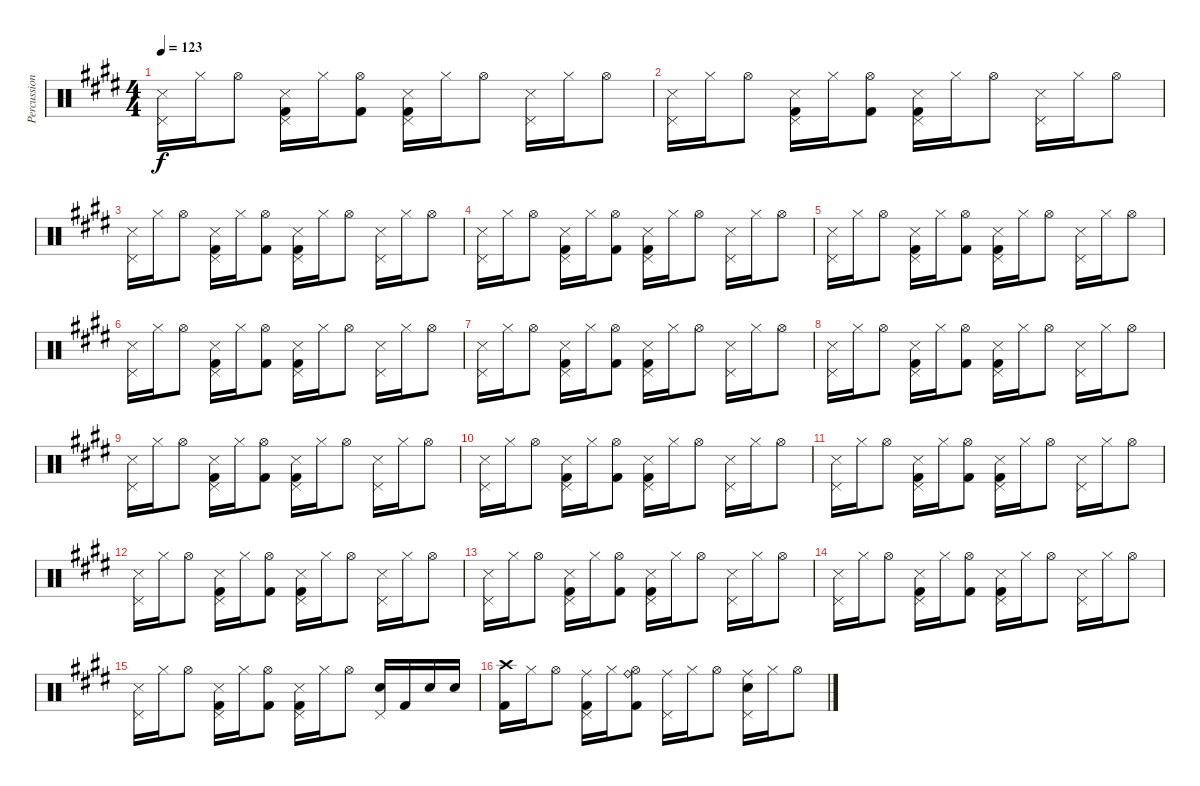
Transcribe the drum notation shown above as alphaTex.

\track ("Percussioni" "Percussion") {instrument percussion}
\staff {score}
\articulation defaults
\ts (4 4)
\tempo 123
\clef neutral
\ks e
("Pedal Hi-Hat (hit)" "Metronome (hit)").16{dy f} "Hi-Hat (closed)".16 "Hi-Hat (open)".8 ("Pedal Hi-Hat (hit)" "Metronome (hit)" "Kick (hit) 2").16 "Hi-Hat (closed)".16 ("Hi-Hat (open)" "Kick (hit) 2").8 ("Pedal Hi-Hat (hit)" "Metronome (hit)" "Kick (hit) 2").16 "Hi-Hat (closed)".16 "Hi-Hat (open)".8 ("Pedal Hi-Hat (hit)" "Metronome (hit)").16 "Hi-Hat (closed)".16 "Hi-Hat (open)".8 |
("Pedal Hi-Hat (hit)" "Metronome (hit)").16 "Hi-Hat (closed)".16 "Hi-Hat (open)".8 ("Pedal Hi-Hat (hit)" "Metronome (hit)" "Kick (hit) 2").16 "Hi-Hat (closed)".16 ("Hi-Hat (open)" "Kick (hit) 2").8 ("Pedal Hi-Hat (hit)" "Metronome (hit)" "Kick (hit) 2").16 "Hi-Hat (closed)".16 "Hi-Hat (open)".8 ("Pedal Hi-Hat (hit)" "Metronome (hit)").16 "Hi-Hat (closed)".16 "Hi-Hat (open)".8 |
("Pedal Hi-Hat (hit)" "Metronome (hit)").16 "Hi-Hat (closed)".16 "Hi-Hat (open)".8 ("Pedal Hi-Hat (hit)" "Metronome (hit)" "Kick (hit) 2").16 "Hi-Hat (closed)".16 ("Hi-Hat (open)" "Kick (hit) 2").8 ("Pedal Hi-Hat (hit)" "Metronome (hit)" "Kick (hit) 2").16 "Hi-Hat (closed)".16 "Hi-Hat (open)".8 ("Pedal Hi-Hat (hit)" "Metronome (hit)").16 "Hi-Hat (closed)".16 "Hi-Hat (open)".8 |
("Pedal Hi-Hat (hit)" "Metronome (hit)").16 "Hi-Hat (closed)".16 "Hi-Hat (open)".8 ("Pedal Hi-Hat (hit)" "Metronome (hit)" "Kick (hit) 2").16 "Hi-Hat (closed)".16 ("Hi-Hat (open)" "Kick (hit) 2").8 ("Pedal Hi-Hat (hit)" "Metronome (hit)" "Kick (hit) 2").16 "Hi-Hat (closed)".16 "Hi-Hat (open)".8 ("Pedal Hi-Hat (hit)" "Metronome (hit)").16 "Hi-Hat (closed)".16 "Hi-Hat (open)".8 |
("Pedal Hi-Hat (hit)" "Metronome (hit)").16 "Hi-Hat (closed)".16 "Hi-Hat (open)".8 ("Pedal Hi-Hat (hit)" "Metronome (hit)" "Kick (hit) 2").16 "Hi-Hat (closed)".16 ("Hi-Hat (open)" "Kick (hit) 2").8 ("Pedal Hi-Hat (hit)" "Metronome (hit)" "Kick (hit) 2").16 "Hi-Hat (closed)".16 "Hi-Hat (open)".8 ("Pedal Hi-Hat (hit)" "Metronome (hit)").16 "Hi-Hat (closed)".16 "Hi-Hat (open)".8 |
("Pedal Hi-Hat (hit)" "Metronome (hit)").16 "Hi-Hat (closed)".16 "Hi-Hat (open)".8 ("Pedal Hi-Hat (hit)" "Metronome (hit)" "Kick (hit) 2").16 "Hi-Hat (closed)".16 ("Hi-Hat (open)" "Kick (hit) 2").8 ("Pedal Hi-Hat (hit)" "Metronome (hit)" "Kick (hit) 2").16 "Hi-Hat (closed)".16 "Hi-Hat (open)".8 ("Pedal Hi-Hat (hit)" "Metronome (hit)").16 "Hi-Hat (closed)".16 "Hi-Hat (open)".8 |
("Pedal Hi-Hat (hit)" "Metronome (hit)").16 "Hi-Hat (closed)".16 "Hi-Hat (open)".8 ("Pedal Hi-Hat (hit)" "Metronome (hit)" "Kick (hit) 2").16 "Hi-Hat (closed)".16 ("Hi-Hat (open)" "Kick (hit) 2").8 ("Pedal Hi-Hat (hit)" "Metronome (hit)" "Kick (hit) 2").16 "Hi-Hat (closed)".16 "Hi-Hat (open)".8 ("Pedal Hi-Hat (hit)" "Metronome (hit)").16 "Hi-Hat (closed)".16 "Hi-Hat (open)".8 |
("Pedal Hi-Hat (hit)" "Metronome (hit)").16 "Hi-Hat (closed)".16 "Hi-Hat (open)".8 ("Pedal Hi-Hat (hit)" "Metronome (hit)" "Kick (hit) 2").16 "Hi-Hat (closed)".16 ("Hi-Hat (open)" "Kick (hit) 2").8 ("Pedal Hi-Hat (hit)" "Metronome (hit)" "Kick (hit) 2").16 "Hi-Hat (closed)".16 "Hi-Hat (open)".8 ("Pedal Hi-Hat (hit)" "Metronome (hit)").16 "Hi-Hat (closed)".16 "Hi-Hat (open)".8 |
("Pedal Hi-Hat (hit)" "Metronome (hit)").16 "Hi-Hat (closed)".16 "Hi-Hat (open)".8 ("Pedal Hi-Hat (hit)" "Metronome (hit)" "Kick (hit) 2").16 "Hi-Hat (closed)".16 ("Hi-Hat (open)" "Kick (hit) 2").8 ("Pedal Hi-Hat (hit)" "Metronome (hit)" "Kick (hit) 2").16 "Hi-Hat (closed)".16 "Hi-Hat (open)".8 ("Pedal Hi-Hat (hit)" "Metronome (hit)").16 "Hi-Hat (closed)".16 "Hi-Hat (open)".8 |
("Pedal Hi-Hat (hit)" "Metronome (hit)").16 "Hi-Hat (closed)".16 "Hi-Hat (open)".8 ("Pedal Hi-Hat (hit)" "Metronome (hit)" "Kick (hit) 2").16 "Hi-Hat (closed)".16 ("Hi-Hat (open)" "Kick (hit) 2").8 ("Pedal Hi-Hat (hit)" "Metronome (hit)" "Kick (hit) 2").16 "Hi-Hat (closed)".16 "Hi-Hat (open)".8 ("Pedal Hi-Hat (hit)" "Metronome (hit)").16 "Hi-Hat (closed)".16 "Hi-Hat (open)".8 |
("Pedal Hi-Hat (hit)" "Metronome (hit)").16 "Hi-Hat (closed)".16 "Hi-Hat (open)".8 ("Pedal Hi-Hat (hit)" "Metronome (hit)" "Kick (hit) 2").16 "Hi-Hat (closed)".16 ("Hi-Hat (open)" "Kick (hit) 2").8 ("Pedal Hi-Hat (hit)" "Metronome (hit)" "Kick (hit) 2").16 "Hi-Hat (closed)".16 "Hi-Hat (open)".8 ("Pedal Hi-Hat (hit)" "Metronome (hit)").16 "Hi-Hat (closed)".16 "Hi-Hat (open)".8 |
("Pedal Hi-Hat (hit)" "Metronome (hit)").16 "Hi-Hat (closed)".16 "Hi-Hat (open)".8 ("Pedal Hi-Hat (hit)" "Metronome (hit)" "Kick (hit) 2").16 "Hi-Hat (closed)".16 ("Hi-Hat (open)" "Kick (hit) 2").8 ("Pedal Hi-Hat (hit)" "Metronome (hit)" "Kick (hit) 2").16 "Hi-Hat (closed)".16 "Hi-Hat (open)".8 ("Pedal Hi-Hat (hit)" "Metronome (hit)").16 "Hi-Hat (closed)".16 "Hi-Hat (open)".8 |
("Pedal Hi-Hat (hit)" "Metronome (hit)").16 "Hi-Hat (closed)".16 "Hi-Hat (open)".8 ("Pedal Hi-Hat (hit)" "Metronome (hit)" "Kick (hit) 2").16 "Hi-Hat (closed)".16 ("Hi-Hat (open)" "Kick (hit) 2").8 ("Pedal Hi-Hat (hit)" "Metronome (hit)" "Kick (hit) 2").16 "Hi-Hat (closed)".16 "Hi-Hat (open)".8 ("Pedal Hi-Hat (hit)" "Metronome (hit)").16 "Hi-Hat (closed)".16 "Hi-Hat (open)".8 |
("Pedal Hi-Hat (hit)" "Metronome (hit)").16 "Hi-Hat (closed)".16 "Hi-Hat (open)".8 ("Pedal Hi-Hat (hit)" "Metronome (hit)" "Kick (hit) 2").16 "Hi-Hat (closed)".16 ("Hi-Hat (open)" "Kick (hit) 2").8 ("Pedal Hi-Hat (hit)" "Metronome (hit)" "Kick (hit) 2").16 "Hi-Hat (closed)".16 "Hi-Hat (open)".8 ("Pedal Hi-Hat (hit)" "Metronome (hit)").16 "Hi-Hat (closed)".16 "Hi-Hat (open)".8 |
("Pedal Hi-Hat (hit)" "Metronome (hit)").16 "Hi-Hat (closed)".16 "Hi-Hat (open)".8 ("Pedal Hi-Hat (hit)" "Metronome (hit)" "Kick (hit) 2").16 "Hi-Hat (closed)".16 ("Hi-Hat (open)" "Kick (hit) 2").8 ("Pedal Hi-Hat (hit)" "Metronome (hit)" "Kick (hit) 2").16 "Hi-Hat (closed)".16 "Hi-Hat (open)".8 ("Pedal Hi-Hat (hit)" "Electric Snare (hit)").16 "Kick (hit) 2".16 "Electric Snare (hit)".16 "Electric Snare (hit)".16 |
("Crash high (hit)" "Kick (hit) 2").16 "Hi-Hat (closed)".16 "Hi-Hat (open)".8 ("Ride (middle)" "Pedal Hi-Hat (hit)" "Kick (hit) 2").16 "Hi-Hat (closed)".16 ("Ride (bell)" "Hi-Hat (open)" "Kick (hit) 2").8 ("Ride (middle)" "Pedal Hi-Hat (hit)").16 "Hi-Hat (closed)".16 "Hi-Hat (open)".8 ("Ride (middle)" "Pedal Hi-Hat (hit)" "Electric Snare (hit)").16 "Hi-Hat (closed)".16 "Hi-Hat (open)".8
